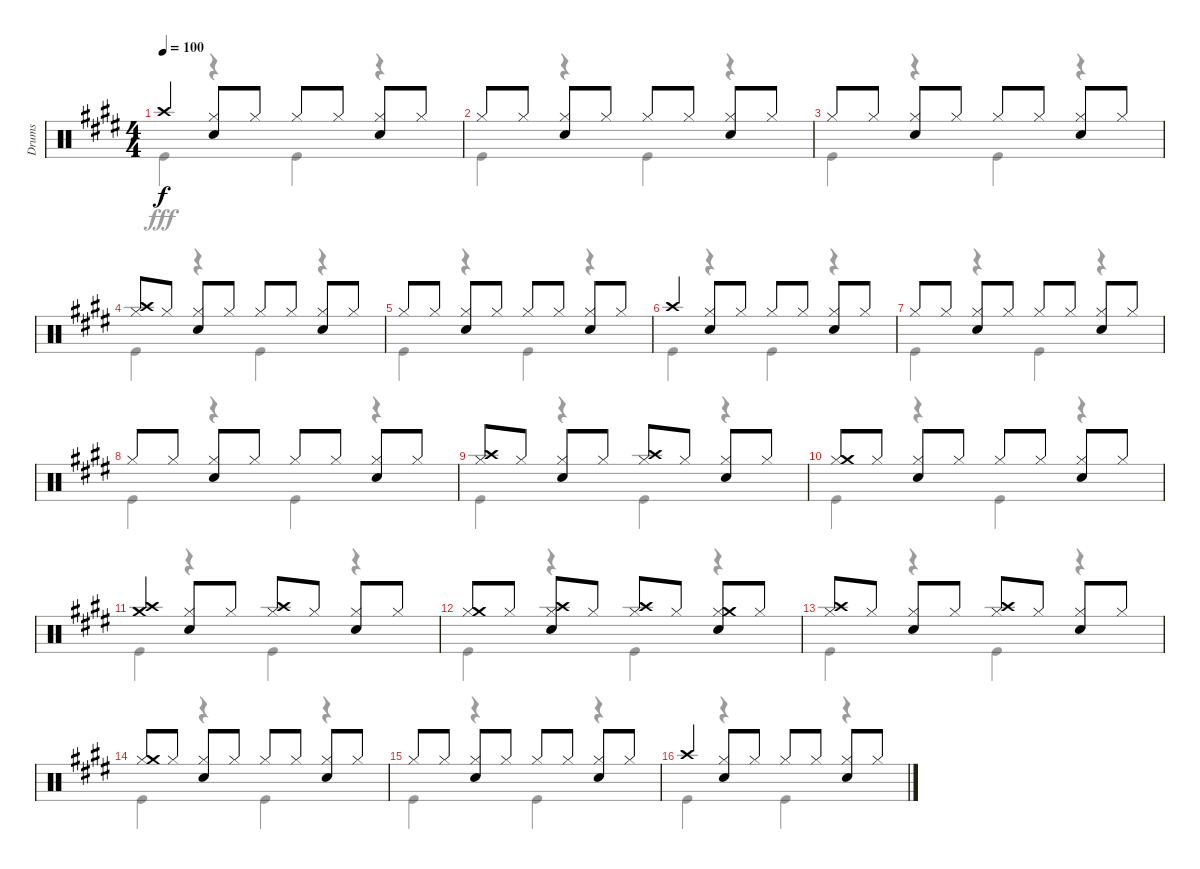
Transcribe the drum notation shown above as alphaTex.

\track ("Drums" "Drums") {instrument percussion}
\staff {score}
\articulation defaults
\voice
\ts (4 4)
\tempo 100
\clef neutral
\ks e "Crash high (hit)".4{dy f}
("Hi-Hat (closed)" "Snare (hit) 2").8 "Hi-Hat (closed)".8 "Hi-Hat (closed)".8 "Hi-Hat (closed)".8 ("Hi-Hat (closed)" "Snare (hit) 2").8 "Hi-Hat (closed)".8 |
"Hi-Hat (closed)".8 "Hi-Hat (closed)".8 ("Hi-Hat (closed)" "Snare (hit) 2").8 "Hi-Hat (closed)".8 "Hi-Hat (closed)".8 "Hi-Hat (closed)".8 ("Hi-Hat (closed)" "Snare (hit) 2").8 "Hi-Hat (closed)".8 |
"Hi-Hat (closed)".8 "Hi-Hat (closed)".8 ("Hi-Hat (closed)" "Snare (hit) 2").8 "Hi-Hat (closed)".8 "Hi-Hat (closed)".8 "Hi-Hat (closed)".8 ("Hi-Hat (closed)" "Snare (hit) 2").8 "Hi-Hat (closed)".8 |
("Hi-Hat (closed)" "Crash high (hit)").8 "Hi-Hat (closed)".8 ("Hi-Hat (closed)" "Snare (hit) 2").8 "Hi-Hat (closed)".8 "Hi-Hat (closed)".8 "Hi-Hat (closed)".8 ("Hi-Hat (closed)" "Snare (hit) 2").8 "Hi-Hat (closed)".8 |
"Hi-Hat (closed)".8 "Hi-Hat (closed)".8 ("Hi-Hat (closed)" "Snare (hit) 2").8 "Hi-Hat (closed)".8 "Hi-Hat (closed)".8 "Hi-Hat (closed)".8 ("Hi-Hat (closed)" "Snare (hit) 2").8 "Hi-Hat (closed)".8 |
"Crash high (hit)".4 ("Hi-Hat (closed)" "Snare (hit) 2").8 "Hi-Hat (closed)".8 "Hi-Hat (closed)".8 "Hi-Hat (closed)".8 ("Hi-Hat (closed)" "Snare (hit) 2").8 "Hi-Hat (closed)".8 |
"Hi-Hat (closed)".8 "Hi-Hat (closed)".8 ("Hi-Hat (closed)" "Snare (hit) 2").8 "Hi-Hat (closed)".8 "Hi-Hat (closed)".8 "Hi-Hat (closed)".8 ("Hi-Hat (closed)" "Snare (hit) 2").8 "Hi-Hat (closed)".8 |
"Hi-Hat (closed)".8 "Hi-Hat (closed)".8 ("Hi-Hat (closed)" "Snare (hit) 2").8 "Hi-Hat (closed)".8 "Hi-Hat (closed)".8 "Hi-Hat (closed)".8 ("Hi-Hat (closed)" "Snare (hit) 2").8 "Hi-Hat (closed)".8 |
("Hi-Hat (closed)" "Crash high (hit)").8 "Hi-Hat (closed)".8 ("Hi-Hat (closed)" "Snare (hit) 2").8 "Hi-Hat (closed)".8 ("Hi-Hat (closed)" "Crash high (hit)").8 "Hi-Hat (closed)".8 ("Hi-Hat (closed)" "Snare (hit) 2").8 "Hi-Hat (closed)".8 |
("Hi-Hat (closed)" "Crash medium (hit)").8 "Hi-Hat (closed)".8 ("Hi-Hat (closed)" "Snare (hit) 2").8 "Hi-Hat (closed)".8 "Hi-Hat (closed)".8 "Hi-Hat (closed)".8 ("Hi-Hat (closed)" "Snare (hit) 2").8 "Hi-Hat (closed)".8 |
("Crash high (hit)" "Crash medium (hit)").4 ("Hi-Hat (closed)" "Snare (hit) 2").8 "Hi-Hat (closed)".8 ("Hi-Hat (closed)" "Crash high (hit)").8 "Hi-Hat (closed)".8 ("Hi-Hat (closed)" "Snare (hit) 2").8 "Hi-Hat (closed)".8 |
("Hi-Hat (closed)" "Crash medium (hit)").8 "Hi-Hat (closed)".8 ("Hi-Hat (closed)" "Snare (hit) 2" "Crash high (hit)").8 "Hi-Hat (closed)".8 ("Hi-Hat (closed)" "Crash high (hit)").8 "Hi-Hat (closed)".8 ("Hi-Hat (closed)" "Snare (hit) 2" "Crash medium (hit)").8 "Hi-Hat (closed)".8 |
("Hi-Hat (closed)" "Crash high (hit)").8 "Hi-Hat (closed)".8 ("Hi-Hat (closed)" "Snare (hit) 2").8 "Hi-Hat (closed)".8 ("Hi-Hat (closed)" "Crash high (hit)").8 "Hi-Hat (closed)".8 ("Hi-Hat (closed)" "Snare (hit) 2").8 "Hi-Hat (closed)".8 |
("Hi-Hat (closed)" "Crash medium (hit)").8 "Hi-Hat (closed)".8 ("Hi-Hat (closed)" "Snare (hit) 2").8 "Hi-Hat (closed)".8 "Hi-Hat (closed)".8 "Hi-Hat (closed)".8 ("Hi-Hat (closed)" "Snare (hit) 2").8 "Hi-Hat (closed)".8 |
"Hi-Hat (closed)".8 "Hi-Hat (closed)".8 ("Hi-Hat (closed)" "Snare (hit) 2").8 "Hi-Hat (closed)".8 "Hi-Hat (closed)".8 "Hi-Hat (closed)".8 ("Hi-Hat (closed)" "Snare (hit) 2").8 "Hi-Hat (closed)".8 |
"Crash high (hit)".4 ("Hi-Hat (closed)" "Snare (hit) 2").8 "Hi-Hat (closed)".8 "Hi-Hat (closed)".8 "Hi-Hat (closed)".8 ("Hi-Hat (closed)" "Snare (hit) 2").8 "Hi-Hat (closed)".8
\voice
\clef neutral
\ottava regular
\simile none
\ks e "Kick (hit)".4{dy fff}
r.4 "Kick (hit)".4 r.4 |
"Kick (hit)".4 r.4 "Kick (hit)".4 r.4 |
"Kick (hit)".4 r.4 "Kick (hit)".4 r.4 |
"Kick (hit)".4 r.4 "Kick (hit)".4 r.4 |
"Kick (hit)".4 r.4 "Kick (hit)".4 r.4 |
"Kick (hit)".4 r.4 "Kick (hit)".4 r.4 |
"Kick (hit)".4 r.4 "Kick (hit)".4 r.4 |
"Kick (hit)".4 r.4 "Kick (hit)".4 r.4 |
"Kick (hit)".4 r.4 "Kick (hit)".4 r.4 |
"Kick (hit)".4 r.4 "Kick (hit)".4 r.4 |
"Kick (hit)".4 r.4 "Kick (hit)".4 r.4 |
"Kick (hit)".4 r.4 "Kick (hit)".4 r.4 |
"Kick (hit)".4 r.4 "Kick (hit)".4 r.4 |
"Kick (hit)".4 r.4 "Kick (hit)".4 r.4 |
"Kick (hit)".4 r.4 "Kick (hit)".4 r.4 |
"Kick (hit)".4 r.4 "Kick (hit)".4 r.4
